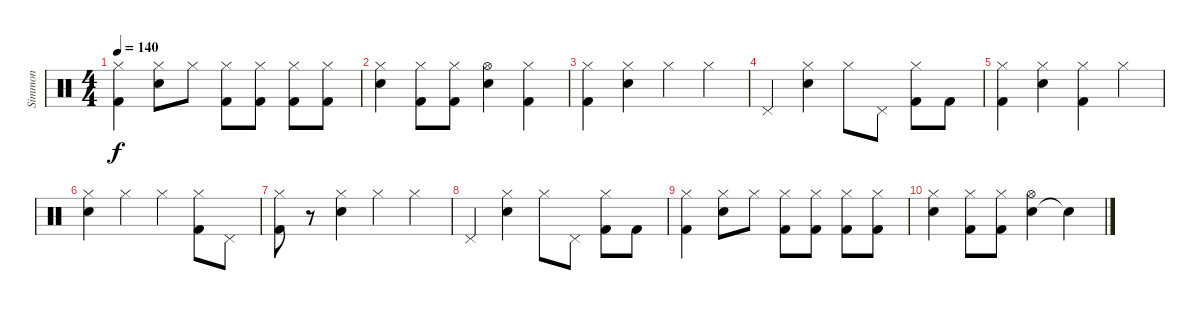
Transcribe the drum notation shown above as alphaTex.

\track ("Simmon" "Simmon") {instrument percussion}
\staff {score}
\articulation defaults
\ts (4 4)
\tempo 140
\clef neutral
\ks c
("Kick (hit) 2" "Hi-Hat (closed)").4{dy f} ("Electric Snare (hit)" "Hi-Hat (closed)").8 "Hi-Hat (closed)".8 ("Kick (hit) 2" "Hi-Hat (closed)").8 ("Kick (hit) 2" "Hi-Hat (closed)").8 ("Kick (hit) 2" "Hi-Hat (closed)").8 ("Kick (hit) 2" "Hi-Hat (closed)").8 |
("Electric Snare (hit)" "Hi-Hat (closed)").4 ("Kick (hit) 2" "Hi-Hat (closed)").8 ("Kick (hit) 2" "Hi-Hat (closed)").8 ("Electric Snare (hit)" "Hi-Hat (open)").4 ("Kick (hit) 2" "Hi-Hat (closed)").4 |
("Kick (hit) 2" "Hi-Hat (closed)").4 ("Electric Snare (hit)" "Hi-Hat (closed)").4 "Hi-Hat (closed)".4 "Hi-Hat (closed)".4 |
"Pedal Hi-Hat (hit)".4 ("Electric Snare (hit)" "Hi-Hat (closed)").4 "Hi-Hat (closed)".8 "Pedal Hi-Hat (hit)".8 ("Kick (hit) 2" "Hi-Hat (closed)").8 "Kick (hit) 2".8 |
("Kick (hit) 2" "Hi-Hat (closed)").4 ("Electric Snare (hit)" "Hi-Hat (closed)").4 ("Kick (hit) 2" "Hi-Hat (closed)").4 "Hi-Hat (closed)".4 |
("Electric Snare (hit)" "Hi-Hat (closed)").4 "Hi-Hat (closed)".4 "Hi-Hat (closed)".4 ("Kick (hit) 2" "Hi-Hat (closed)").8 "Pedal Hi-Hat (hit)".8 |
("Kick (hit) 2" "Hi-Hat (closed)").8 r.8 ("Electric Snare (hit)" "Hi-Hat (closed)").4 "Hi-Hat (closed)".4 "Hi-Hat (closed)".4 |
"Pedal Hi-Hat (hit)".4 ("Electric Snare (hit)" "Hi-Hat (closed)").4 "Hi-Hat (closed)".8 "Pedal Hi-Hat (hit)".8 ("Kick (hit) 2" "Hi-Hat (closed)").8 "Kick (hit) 2".8 |
("Kick (hit) 2" "Hi-Hat (closed)").4 ("Electric Snare (hit)" "Hi-Hat (closed)").8 "Hi-Hat (closed)".8 ("Kick (hit) 2" "Hi-Hat (closed)").8 ("Kick (hit) 2" "Hi-Hat (closed)").8 ("Kick (hit) 2" "Hi-Hat (closed)").8 ("Kick (hit) 2" "Hi-Hat (closed)").8 |
("Electric Snare (hit)" "Hi-Hat (closed)").4 ("Kick (hit) 2" "Hi-Hat (closed)").8 ("Kick (hit) 2" "Hi-Hat (closed)").8 ("Electric Snare (hit)" "Hi-Hat (open)").4 "Snare (hit)"{t}.4
